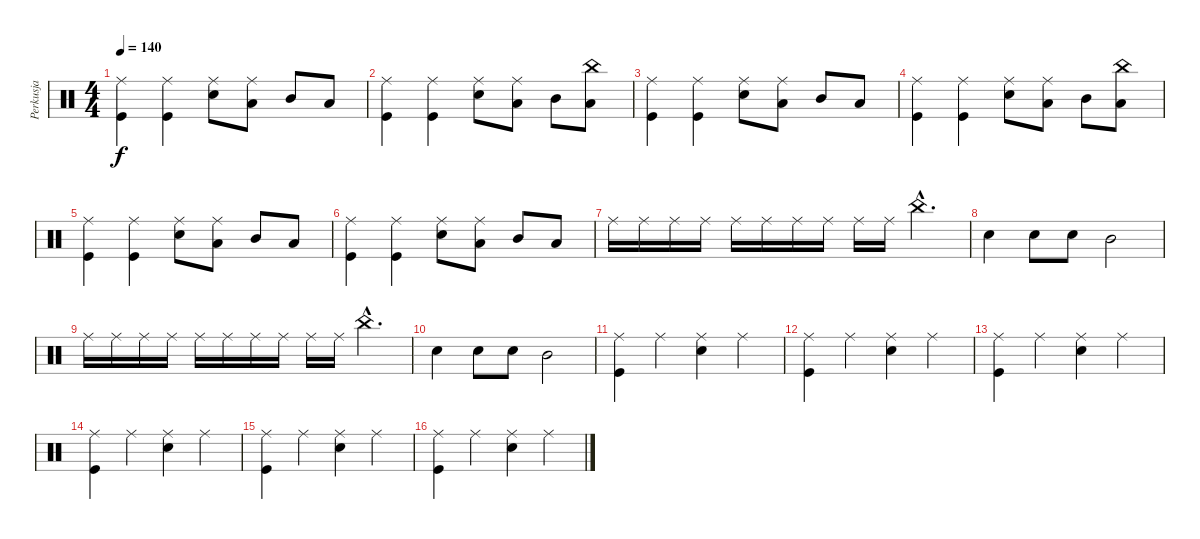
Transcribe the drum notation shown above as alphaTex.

\track ("Perkusja" "Perkusja") {instrument percussion}
\staff {score}
\articulation defaults
\ts (4 4)
\tempo 140
\clef neutral
\ks c
("Ride (middle)" "Kick (hit)").4{dy f} ("Ride (middle)" "Kick (hit)").4 ("Ride (middle)" "Snare (hit) 2").8 ("Ride (middle)" "Low Tom (hit)").8 "Mid Tom (hit)".8 "Low Floor Tom (hit)".8 |
("Ride (middle)" "Kick (hit)").4 ("Ride (middle)" "Kick (hit)").4 ("Ride (middle)" "Snare (hit) 2").8 ("Ride (middle)" "Low Tom (hit)").8 "Mid Tom (hit)".8 ("China (hit)" "Low Floor Tom (hit)").8 |
("Ride (middle)" "Kick (hit)").4 ("Ride (middle)" "Kick (hit)").4 ("Ride (middle)" "Snare (hit) 2").8 ("Ride (middle)" "Low Tom (hit)").8 "Mid Tom (hit)".8 "Low Floor Tom (hit)".8 |
("Ride (middle)" "Kick (hit)").4 ("Ride (middle)" "Kick (hit)").4 ("Ride (middle)" "Snare (hit) 2").8 ("Ride (middle)" "Low Tom (hit)").8 "Mid Tom (hit)".8 ("China (hit)" "Low Floor Tom (hit)").8 |
("Ride (middle)" "Kick (hit)").4 ("Ride (middle)" "Kick (hit)").4 ("Ride (middle)" "Snare (hit) 2").8 ("Ride (middle)" "Low Tom (hit)").8 "Mid Tom (hit)".8 "Low Floor Tom (hit)".8 |
("Ride (middle)" "Kick (hit)").4 ("Ride (middle)" "Kick (hit)").4 ("Ride (middle)" "Snare (hit) 2").8 ("Ride (middle)" "Low Tom (hit)").8 "Mid Tom (hit)".8 "Low Floor Tom (hit)".8 |
"Ride (middle)".16 "Ride (middle)".16 "Ride (middle)".16 "Ride (middle)".16 "Ride (middle)".16 "Ride (middle)".16 "Ride (middle)".16 "Ride (middle)".16 "Ride (middle)".16 "Ride (middle)".16 "China (hit)"{hac}.4{d} |
"Snare (hit) 2".4 "Snare (hit) 2".8 "Snare (hit) 2".8 "Mid Tom (hit)".2 |
"Ride (middle)".16 "Ride (middle)".16 "Ride (middle)".16 "Ride (middle)".16 "Ride (middle)".16 "Ride (middle)".16 "Ride (middle)".16 "Ride (middle)".16 "Ride (middle)".16 "Ride (middle)".16 "China (hit)"{hac}.4{d} |
"Snare (hit) 2".4 "Snare (hit) 2".8 "Snare (hit) 2".8 "Mid Tom (hit)".2 |
("Ride (middle)" "Kick (hit)").4 "Ride (middle)".4 ("Ride (middle)" "Snare (hit) 2").4 "Ride (middle)".4 |
("Ride (middle)" "Kick (hit)").4 "Ride (middle)".4 ("Ride (middle)" "Snare (hit) 2").4 "Ride (middle)".4 |
("Ride (middle)" "Kick (hit)").4 "Ride (middle)".4 ("Ride (middle)" "Snare (hit) 2").4 "Ride (middle)".4 |
("Ride (middle)" "Kick (hit)").4 "Ride (middle)".4 ("Ride (middle)" "Snare (hit) 2").4 "Ride (middle)".4 |
("Ride (middle)" "Kick (hit)").4 "Ride (middle)".4 ("Ride (middle)" "Snare (hit) 2").4 "Ride (middle)".4 |
("Ride (middle)" "Kick (hit)").4 "Ride (middle)".4 ("Ride (middle)" "Snare (hit) 2").4 "Ride (middle)".4
